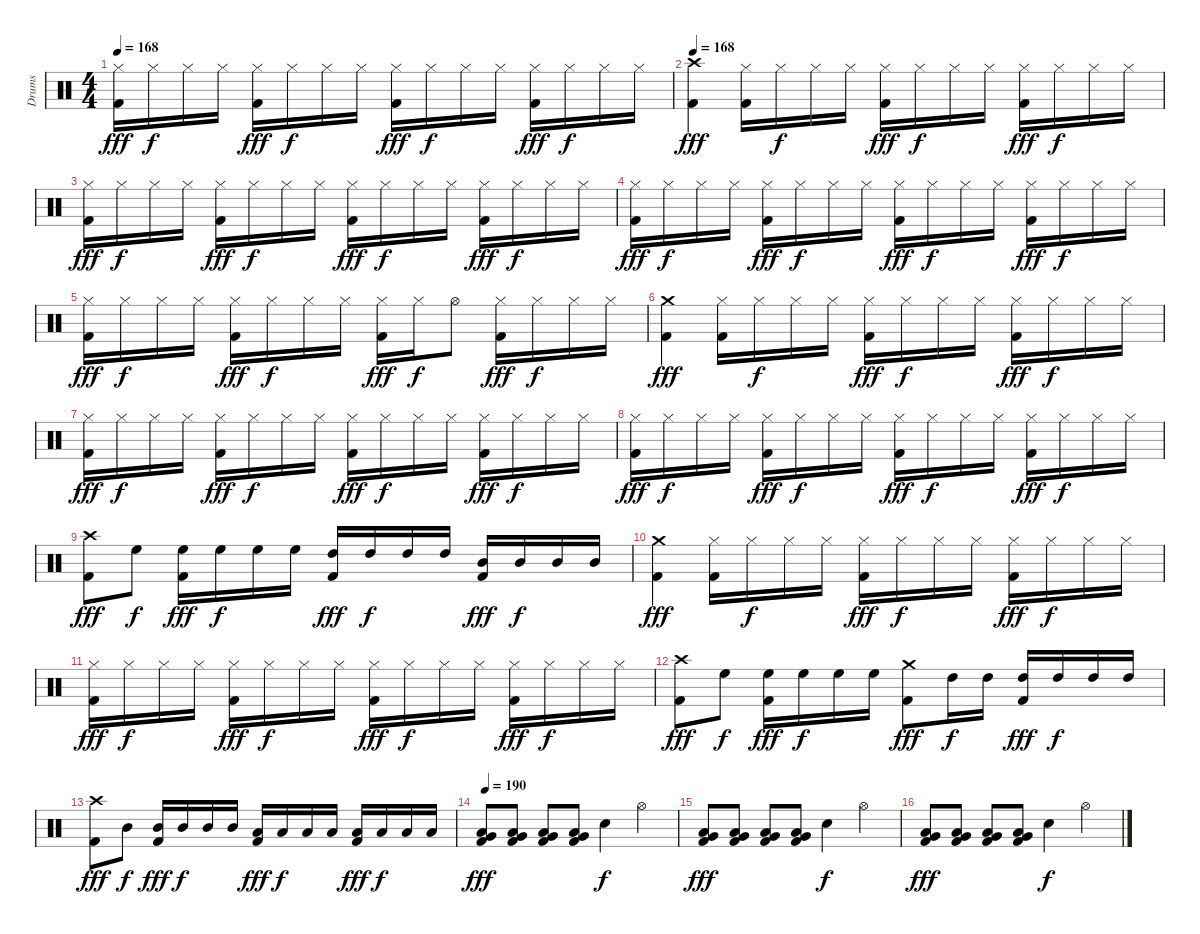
\track ("Drums" "Drums") {instrument percussion}
\staff {score}
\articulation defaults
\ts (4 4)
\tempo 168
\clef neutral
\ks c
("Hi-Hat (closed)" "Kick (hit) 2").16{dy fff} "Hi-Hat (closed)".16{dy f} "Hi-Hat (closed)".16 "Hi-Hat (closed)".16 ("Hi-Hat (closed)" "Kick (hit) 2").16{dy fff} "Hi-Hat (closed)".16{dy f} "Hi-Hat (closed)".16 "Hi-Hat (closed)".16 ("Hi-Hat (closed)" "Kick (hit) 2").16{dy fff} "Hi-Hat (closed)".16{dy f} "Hi-Hat (closed)".16 "Hi-Hat (closed)".16 ("Hi-Hat (closed)" "Kick (hit) 2").16{dy fff} "Hi-Hat (closed)".16{dy f} "Hi-Hat (closed)".16 "Hi-Hat (closed)".16 |
\tempo 168
("Crash high (hit)" "Kick (hit) 2").4{dy fff} ("Hi-Hat (closed)" "Kick (hit) 2").16 "Hi-Hat (closed)".16{dy f} "Hi-Hat (closed)".16 "Hi-Hat (closed)".16 ("Hi-Hat (closed)" "Kick (hit) 2").16{dy fff} "Hi-Hat (closed)".16{dy f} "Hi-Hat (closed)".16 "Hi-Hat (closed)".16 ("Hi-Hat (closed)" "Kick (hit) 2").16{dy fff} "Hi-Hat (closed)".16{dy f} "Hi-Hat (closed)".16 "Hi-Hat (closed)".16 |
("Hi-Hat (closed)" "Kick (hit) 2").16{dy fff} "Hi-Hat (closed)".16{dy f} "Hi-Hat (closed)".16 "Hi-Hat (closed)".16 ("Hi-Hat (closed)" "Kick (hit) 2").16{dy fff} "Hi-Hat (closed)".16{dy f} "Hi-Hat (closed)".16 "Hi-Hat (closed)".16 ("Hi-Hat (closed)" "Kick (hit) 2").16{dy fff} "Hi-Hat (closed)".16{dy f} "Hi-Hat (closed)".16 "Hi-Hat (closed)".16 ("Hi-Hat (closed)" "Kick (hit) 2").16{dy fff} "Hi-Hat (closed)".16{dy f} "Hi-Hat (closed)".16 "Hi-Hat (closed)".16 |
("Hi-Hat (closed)" "Kick (hit) 2").16{dy fff} "Hi-Hat (closed)".16{dy f} "Hi-Hat (closed)".16 "Hi-Hat (closed)".16 ("Hi-Hat (closed)" "Kick (hit) 2").16{dy fff} "Hi-Hat (closed)".16{dy f} "Hi-Hat (closed)".16 "Hi-Hat (closed)".16 ("Hi-Hat (closed)" "Kick (hit) 2").16{dy fff} "Hi-Hat (closed)".16{dy f} "Hi-Hat (closed)".16 "Hi-Hat (closed)".16 ("Hi-Hat (closed)" "Kick (hit) 2").16{dy fff} "Hi-Hat (closed)".16{dy f} "Hi-Hat (closed)".16 "Hi-Hat (closed)".16 |
("Hi-Hat (closed)" "Kick (hit) 2").16{dy fff} "Hi-Hat (closed)".16{dy f} "Hi-Hat (closed)".16 "Hi-Hat (closed)".16 ("Hi-Hat (closed)" "Kick (hit) 2").16{dy fff} "Hi-Hat (closed)".16{dy f} "Hi-Hat (closed)".16 "Hi-Hat (closed)".16 ("Hi-Hat (closed)" "Kick (hit) 2").16{dy fff} "Hi-Hat (closed)".16{dy f} "Hi-Hat (open)".8 ("Hi-Hat (closed)" "Kick (hit) 2").16{dy fff} "Hi-Hat (closed)".16{dy f} "Hi-Hat (closed)".16 "Hi-Hat (closed)".16 |
("Crash medium (hit)" "Kick (hit) 2").4{dy fff} ("Hi-Hat (closed)" "Kick (hit) 2").16 "Hi-Hat (closed)".16{dy f} "Hi-Hat (closed)".16 "Hi-Hat (closed)".16 ("Hi-Hat (closed)" "Kick (hit) 2").16{dy fff} "Hi-Hat (closed)".16{dy f} "Hi-Hat (closed)".16 "Hi-Hat (closed)".16 ("Hi-Hat (closed)" "Kick (hit) 2").16{dy fff} "Hi-Hat (closed)".16{dy f} "Hi-Hat (closed)".16 "Hi-Hat (closed)".16 |
("Hi-Hat (closed)" "Kick (hit) 2").16{dy fff} "Hi-Hat (closed)".16{dy f} "Hi-Hat (closed)".16 "Hi-Hat (closed)".16 ("Hi-Hat (closed)" "Kick (hit) 2").16{dy fff} "Hi-Hat (closed)".16{dy f} "Hi-Hat (closed)".16 "Hi-Hat (closed)".16 ("Hi-Hat (closed)" "Kick (hit) 2").16{dy fff} "Hi-Hat (closed)".16{dy f} "Hi-Hat (closed)".16 "Hi-Hat (closed)".16 ("Hi-Hat (closed)" "Kick (hit) 2").16{dy fff} "Hi-Hat (closed)".16{dy f} "Hi-Hat (closed)".16 "Hi-Hat (closed)".16 |
("Hi-Hat (closed)" "Kick (hit) 2").16{dy fff} "Hi-Hat (closed)".16{dy f} "Hi-Hat (closed)".16 "Hi-Hat (closed)".16 ("Hi-Hat (closed)" "Kick (hit) 2").16{dy fff} "Hi-Hat (closed)".16{dy f} "Hi-Hat (closed)".16 "Hi-Hat (closed)".16 ("Hi-Hat (closed)" "Kick (hit) 2").16{dy fff} "Hi-Hat (closed)".16{dy f} "Hi-Hat (closed)".16 "Hi-Hat (closed)".16 ("Hi-Hat (closed)" "Kick (hit) 2").16{dy fff} "Hi-Hat (closed)".16{dy f} "Hi-Hat (closed)".16 "Hi-Hat (closed)".16 |
("Crash high (hit)" "Kick (hit) 2").8{dy fff} "High Floor Tom (hit)".8{dy f} ("High Floor Tom (hit)" "Kick (hit) 2").16{dy fff} "High Floor Tom (hit)".16{dy f} "High Floor Tom (hit)".16 "High Floor Tom (hit)".16 ("High Tom (hit)" "Kick (hit) 2").16{dy fff} "High Tom (hit)".16{dy f} "High Tom (hit)".16 "High Tom (hit)".16 ("Mid Tom (hit)" "Kick (hit) 2").16{dy fff} "Mid Tom (hit)".16{dy f} "Mid Tom (hit)".16 "Mid Tom (hit)".16 |
("Crash medium (hit)" "Kick (hit) 2").4{dy fff} ("Hi-Hat (closed)" "Kick (hit) 2").16 "Hi-Hat (closed)".16{dy f} "Hi-Hat (closed)".16 "Hi-Hat (closed)".16 ("Hi-Hat (closed)" "Kick (hit) 2").16{dy fff} "Hi-Hat (closed)".16{dy f} "Hi-Hat (closed)".16 "Hi-Hat (closed)".16 ("Hi-Hat (closed)" "Kick (hit) 2").16{dy fff} "Hi-Hat (closed)".16{dy f} "Hi-Hat (closed)".16 "Hi-Hat (closed)".16 |
("Hi-Hat (closed)" "Kick (hit) 2").16{dy fff} "Hi-Hat (closed)".16{dy f} "Hi-Hat (closed)".16 "Hi-Hat (closed)".16 ("Hi-Hat (closed)" "Kick (hit) 2").16{dy fff} "Hi-Hat (closed)".16{dy f} "Hi-Hat (closed)".16 "Hi-Hat (closed)".16 ("Hi-Hat (closed)" "Kick (hit) 2").16{dy fff} "Hi-Hat (closed)".16{dy f} "Hi-Hat (closed)".16 "Hi-Hat (closed)".16 ("Hi-Hat (closed)" "Kick (hit) 2").16{dy fff} "Hi-Hat (closed)".16{dy f} "Hi-Hat (closed)".16 "Hi-Hat (closed)".16 |
("Crash high (hit)" "Kick (hit) 2").8{dy fff} "High Floor Tom (hit)".8{dy f} ("High Floor Tom (hit)" "Kick (hit) 2").16{dy fff} "High Floor Tom (hit)".16{dy f} "High Floor Tom (hit)".16 "High Floor Tom (hit)".16 ("Crash medium (hit)" "Kick (hit) 2").8{dy fff} "High Tom (hit)".16{dy f} "High Tom (hit)".16 ("High Tom (hit)" "Kick (hit) 2").16{dy fff} "High Tom (hit)".16{dy f} "High Tom (hit)".16 "High Tom (hit)".16 |
("Crash high (hit)" "Kick (hit) 2").8{dy fff} "Mid Tom (hit)".8{dy f} ("Mid Tom (hit)" "Kick (hit) 2").16{dy fff} "Mid Tom (hit)".16{dy f} "Mid Tom (hit)".16 "Mid Tom (hit)".16 ("Low Tom (hit)" "Kick (hit) 2").16{dy fff} "Low Tom (hit)".16{dy f} "Low Tom (hit)".16 "Low Tom (hit)".16 ("Low Tom (hit)" "Kick (hit) 2").16{dy fff} "Low Tom (hit)".16{dy f} "Low Tom (hit)".16 "Low Tom (hit)".16 |
\tempo 190
("Very Low Tom (hit)" "Low Floor Tom (hit)" "Kick (hit) 2").8{dy fff} ("Very Low Tom (hit)" "Low Floor Tom (hit)" "Kick (hit) 2").8 ("Very Low Tom (hit)" "Low Floor Tom (hit)" "Kick (hit) 2").8 ("Very Low Tom (hit)" "Low Floor Tom (hit)" "Kick (hit) 2").8 "Electric Snare (hit)".4{dy f} "Hi-Hat (open)".4 |
("Very Low Tom (hit)" "Low Floor Tom (hit)" "Kick (hit) 2").8{dy fff} ("Very Low Tom (hit)" "Low Floor Tom (hit)" "Kick (hit) 2").8 ("Very Low Tom (hit)" "Low Floor Tom (hit)" "Kick (hit) 2").8 ("Very Low Tom (hit)" "Low Floor Tom (hit)" "Kick (hit) 2").8 "Electric Snare (hit)".4{dy f} "Hi-Hat (open)".4 |
("Very Low Tom (hit)" "Low Floor Tom (hit)" "Kick (hit) 2").8{dy fff} ("Very Low Tom (hit)" "Low Floor Tom (hit)" "Kick (hit) 2").8 ("Very Low Tom (hit)" "Low Floor Tom (hit)" "Kick (hit) 2").8 ("Very Low Tom (hit)" "Low Floor Tom (hit)" "Kick (hit) 2").8 "Electric Snare (hit)".4{dy f} "Hi-Hat (open)".4
